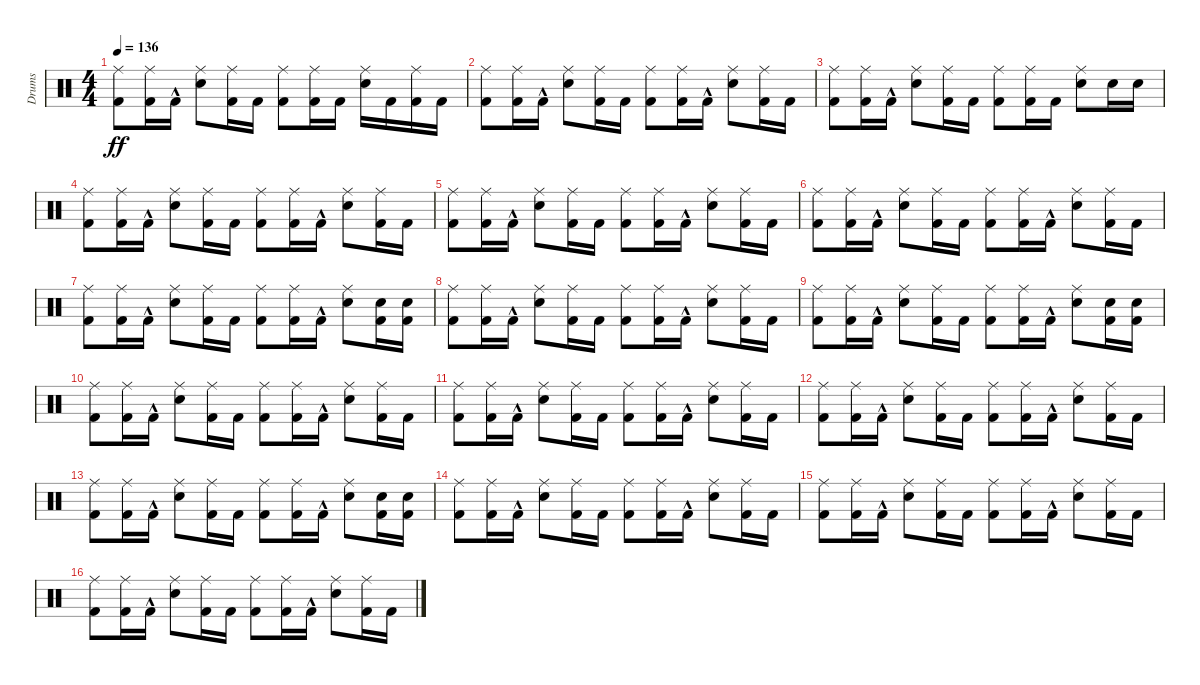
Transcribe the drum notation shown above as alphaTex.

\track ("Drums" "Drums") {instrument percussion}
\staff {score}
\articulation defaults
\ts (4 4)
\tempo 136
\clef neutral
\ks c
("Kick (hit) 2" "Ride (middle)").8{dy ff} ("Kick (hit) 2" "Ride (middle)").16 "Kick (hit) 2"{hac}.16 ("Snare (hit) 2" "Ride (middle)").8 ("Kick (hit) 2" "Ride (middle)").16 "Kick (hit) 2".16 ("Kick (hit) 2" "Ride (middle)").8 ("Kick (hit) 2" "Ride (middle)").16 "Kick (hit) 2".16 ("Snare (hit) 2" "Ride (middle)").16 "Kick (hit) 2".16 ("Kick (hit) 2" "Ride (middle)").16 "Kick (hit) 2".16 |
("Kick (hit) 2" "Ride (middle)").8 ("Kick (hit) 2" "Ride (middle)").16 "Kick (hit) 2"{hac}.16 ("Snare (hit) 2" "Ride (middle)").8 ("Kick (hit) 2" "Ride (middle)").16 "Kick (hit) 2".16 ("Kick (hit) 2" "Ride (middle)").8 ("Kick (hit) 2" "Ride (middle)").16 "Kick (hit) 2"{hac}.16 ("Snare (hit) 2" "Ride (middle)").8 ("Kick (hit) 2" "Ride (middle)").16 "Kick (hit) 2".16 |
("Kick (hit) 2" "Ride (middle)").8 ("Kick (hit) 2" "Ride (middle)").16 "Kick (hit) 2"{hac}.16 ("Snare (hit) 2" "Ride (middle)").8 ("Kick (hit) 2" "Ride (middle)").16 "Kick (hit) 2".16 ("Kick (hit) 2" "Ride (middle)").8 ("Kick (hit) 2" "Ride (middle)").16 "Kick (hit) 2".16 ("Snare (hit) 2" "Ride (middle)").8 "Snare (hit) 2".16 "Snare (hit) 2".16 |
("Kick (hit) 2" "Ride (middle)").8 ("Kick (hit) 2" "Ride (middle)").16 "Kick (hit) 2"{hac}.16 ("Snare (hit) 2" "Ride (middle)").8 ("Kick (hit) 2" "Ride (middle)").16 "Kick (hit) 2".16 ("Kick (hit) 2" "Ride (middle)").8 ("Kick (hit) 2" "Ride (middle)").16 "Kick (hit) 2"{hac}.16 ("Snare (hit) 2" "Ride (middle)").8 ("Kick (hit) 2" "Ride (middle)").16 "Kick (hit) 2".16 |
("Kick (hit) 2" "Ride (middle)").8 ("Kick (hit) 2" "Ride (middle)").16 "Kick (hit) 2"{hac}.16 ("Snare (hit) 2" "Ride (middle)").8 ("Kick (hit) 2" "Ride (middle)").16 "Kick (hit) 2".16 ("Kick (hit) 2" "Ride (middle)").8 ("Kick (hit) 2" "Ride (middle)").16 "Kick (hit) 2"{hac}.16 ("Snare (hit) 2" "Ride (middle)").8 ("Kick (hit) 2" "Ride (middle)").16 "Kick (hit) 2".16 |
("Kick (hit) 2" "Ride (middle)").8 ("Kick (hit) 2" "Ride (middle)").16 "Kick (hit) 2"{hac}.16 ("Snare (hit) 2" "Ride (middle)").8 ("Kick (hit) 2" "Ride (middle)").16 "Kick (hit) 2".16 ("Kick (hit) 2" "Ride (middle)").8 ("Kick (hit) 2" "Ride (middle)").16 "Kick (hit) 2"{hac}.16 ("Snare (hit) 2" "Ride (middle)").8 ("Kick (hit) 2" "Ride (middle)").16 "Kick (hit) 2".16 |
("Kick (hit) 2" "Ride (middle)").8 ("Kick (hit) 2" "Ride (middle)").16 "Kick (hit) 2"{hac}.16 ("Snare (hit) 2" "Ride (middle)").8 ("Kick (hit) 2" "Ride (middle)").16 "Kick (hit) 2".16 ("Kick (hit) 2" "Ride (middle)").8 ("Kick (hit) 2" "Ride (middle)").16 "Kick (hit) 2"{hac}.16 ("Snare (hit) 2" "Ride (middle)").8 ("Kick (hit) 2" "Snare (hit) 2").16 ("Kick (hit) 2" "Snare (hit) 2").16 |
("Kick (hit) 2" "Ride (middle)").8 ("Kick (hit) 2" "Ride (middle)").16 "Kick (hit) 2"{hac}.16 ("Snare (hit) 2" "Ride (middle)").8 ("Kick (hit) 2" "Ride (middle)").16 "Kick (hit) 2".16 ("Kick (hit) 2" "Ride (middle)").8 ("Kick (hit) 2" "Ride (middle)").16 "Kick (hit) 2"{hac}.16 ("Snare (hit) 2" "Ride (middle)").8 ("Kick (hit) 2" "Ride (middle)").16 "Kick (hit) 2".16 |
("Kick (hit) 2" "Ride (middle)").8 ("Kick (hit) 2" "Ride (middle)").16 "Kick (hit) 2"{hac}.16 ("Snare (hit) 2" "Ride (middle)").8 ("Kick (hit) 2" "Ride (middle)").16 "Kick (hit) 2".16 ("Kick (hit) 2" "Ride (middle)").8 ("Kick (hit) 2" "Ride (middle)").16 "Kick (hit) 2"{hac}.16 ("Snare (hit) 2" "Ride (middle)").8 ("Kick (hit) 2" "Snare (hit) 2").16 ("Kick (hit) 2" "Snare (hit) 2").16 |
("Kick (hit) 2" "Ride (middle)").8 ("Kick (hit) 2" "Ride (middle)").16 "Kick (hit) 2"{hac}.16 ("Snare (hit) 2" "Ride (middle)").8 ("Kick (hit) 2" "Ride (middle)").16 "Kick (hit) 2".16 ("Kick (hit) 2" "Ride (middle)").8 ("Kick (hit) 2" "Ride (middle)").16 "Kick (hit) 2"{hac}.16 ("Snare (hit) 2" "Ride (middle)").8 ("Kick (hit) 2" "Ride (middle)").16 "Kick (hit) 2".16 |
("Kick (hit) 2" "Ride (middle)").8 ("Kick (hit) 2" "Ride (middle)").16 "Kick (hit) 2"{hac}.16 ("Snare (hit) 2" "Ride (middle)").8 ("Kick (hit) 2" "Ride (middle)").16 "Kick (hit) 2".16 ("Kick (hit) 2" "Ride (middle)").8 ("Kick (hit) 2" "Ride (middle)").16 "Kick (hit) 2"{hac}.16 ("Snare (hit) 2" "Ride (middle)").8 ("Kick (hit) 2" "Ride (middle)").16 "Kick (hit) 2".16 |
("Kick (hit) 2" "Ride (middle)").8 ("Kick (hit) 2" "Ride (middle)").16 "Kick (hit) 2"{hac}.16 ("Snare (hit) 2" "Ride (middle)").8 ("Kick (hit) 2" "Ride (middle)").16 "Kick (hit) 2".16 ("Kick (hit) 2" "Ride (middle)").8 ("Kick (hit) 2" "Ride (middle)").16 "Kick (hit) 2"{hac}.16 ("Snare (hit) 2" "Ride (middle)").8 ("Kick (hit) 2" "Ride (middle)").16 "Kick (hit) 2".16 |
("Kick (hit) 2" "Ride (middle)").8 ("Kick (hit) 2" "Ride (middle)").16 "Kick (hit) 2"{hac}.16 ("Snare (hit) 2" "Ride (middle)").8 ("Kick (hit) 2" "Ride (middle)").16 "Kick (hit) 2".16 ("Kick (hit) 2" "Ride (middle)").8 ("Kick (hit) 2" "Ride (middle)").16 "Kick (hit) 2"{hac}.16 ("Snare (hit) 2" "Ride (middle)").8 ("Kick (hit) 2" "Snare (hit) 2").16 ("Kick (hit) 2" "Snare (hit) 2").16 |
("Kick (hit) 2" "Ride (middle)").8 ("Kick (hit) 2" "Ride (middle)").16 "Kick (hit) 2"{hac}.16 ("Snare (hit) 2" "Ride (middle)").8 ("Kick (hit) 2" "Ride (middle)").16 "Kick (hit) 2".16 ("Kick (hit) 2" "Ride (middle)").8 ("Kick (hit) 2" "Ride (middle)").16 "Kick (hit) 2"{hac}.16 ("Snare (hit) 2" "Ride (middle)").8 ("Kick (hit) 2" "Ride (middle)").16 "Kick (hit) 2".16 |
("Kick (hit) 2" "Ride (middle)").8 ("Kick (hit) 2" "Ride (middle)").16 "Kick (hit) 2"{hac}.16 ("Snare (hit) 2" "Ride (middle)").8 ("Kick (hit) 2" "Ride (middle)").16 "Kick (hit) 2".16 ("Kick (hit) 2" "Ride (middle)").8 ("Kick (hit) 2" "Ride (middle)").16 "Kick (hit) 2"{hac}.16 ("Snare (hit) 2" "Ride (middle)").8 ("Kick (hit) 2" "Ride (middle)").16 "Kick (hit) 2".16 |
("Kick (hit) 2" "Ride (middle)").8 ("Kick (hit) 2" "Ride (middle)").16 "Kick (hit) 2"{hac}.16 ("Snare (hit) 2" "Ride (middle)").8 ("Kick (hit) 2" "Ride (middle)").16 "Kick (hit) 2".16 ("Kick (hit) 2" "Ride (middle)").8 ("Kick (hit) 2" "Ride (middle)").16 "Kick (hit) 2"{hac}.16 ("Snare (hit) 2" "Ride (middle)").8 ("Kick (hit) 2" "Ride (middle)").16 "Kick (hit) 2".16
